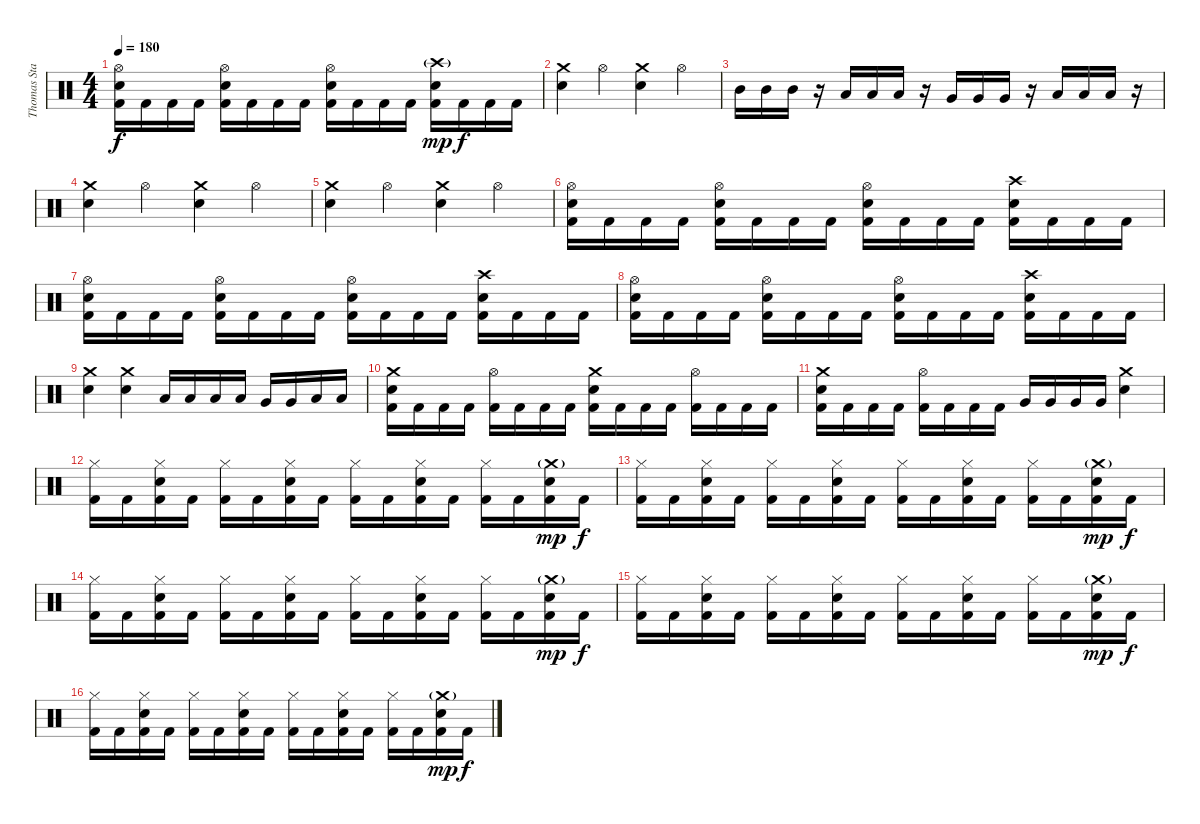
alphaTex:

\track ("Thomas Stauch" "Thomas Sta") {instrument percussion}
\staff {score}
\articulation defaults
\ts (4 4)
\tempo 180
\clef neutral
\ks c
("Hi-Hat (open)" "Electric Snare (hit)" "Kick (hit) 2").16{dy f} "Kick (hit) 2".16 "Kick (hit) 2".16 "Kick (hit) 2".16 ("Hi-Hat (open)" "Electric Snare (hit)" "Kick (hit) 2").16 "Kick (hit) 2".16 "Kick (hit) 2".16 "Kick (hit) 2".16 ("Hi-Hat (open)" "Electric Snare (hit)" "Kick (hit) 2").16 "Kick (hit) 2".16 "Kick (hit) 2".16 "Kick (hit) 2".16 ("Crash high (hit)"{g} "Electric Snare (hit)" "Kick (hit) 2").16{dy mp} "Kick (hit) 2".16{dy f} "Kick (hit) 2".16 "Kick (hit) 2".16 |
("Crash medium (hit)" "Electric Snare (hit)").4 "Hi-Hat (open)".4 ("Crash medium (hit)" "Electric Snare (hit)").4 "Hi-Hat (open)".4 |
"Mid Tom (hit)".16 "Mid Tom (hit)".16 "Mid Tom (hit)".16 r.16 "Low Tom (hit)".16 "Low Tom (hit)".16 "Low Tom (hit)".16 r.16 "Very Low Tom (hit)".16 "Very Low Tom (hit)".16 "Very Low Tom (hit)".16 r.16 "Low Floor Tom (hit)".16 "Low Floor Tom (hit)".16 "Low Floor Tom (hit)".16 r.16 |
("Crash medium (hit)" "Electric Snare (hit)").4 "Hi-Hat (open)".4 ("Crash medium (hit)" "Electric Snare (hit)").4 "Hi-Hat (open)".4 |
("Crash medium (hit)" "Electric Snare (hit)").4 "Hi-Hat (open)".4 ("Crash medium (hit)" "Electric Snare (hit)").4 "Hi-Hat (open)".4 |
("Hi-Hat (open)" "Electric Snare (hit)" "Kick (hit) 2").16 "Kick (hit) 2".16 "Kick (hit) 2".16 "Kick (hit) 2".16 ("Hi-Hat (open)" "Electric Snare (hit)" "Kick (hit) 2").16 "Kick (hit) 2".16 "Kick (hit) 2".16 "Kick (hit) 2".16 ("Hi-Hat (open)" "Electric Snare (hit)" "Kick (hit) 2").16 "Kick (hit) 2".16 "Kick (hit) 2".16 "Kick (hit) 2".16 ("Crash high (hit)" "Electric Snare (hit)" "Kick (hit) 2").16 "Kick (hit) 2".16 "Kick (hit) 2".16 "Kick (hit) 2".16 |
("Hi-Hat (open)" "Electric Snare (hit)" "Kick (hit) 2").16 "Kick (hit) 2".16 "Kick (hit) 2".16 "Kick (hit) 2".16 ("Hi-Hat (open)" "Electric Snare (hit)" "Kick (hit) 2").16 "Kick (hit) 2".16 "Kick (hit) 2".16 "Kick (hit) 2".16 ("Hi-Hat (open)" "Electric Snare (hit)" "Kick (hit) 2").16 "Kick (hit) 2".16 "Kick (hit) 2".16 "Kick (hit) 2".16 ("Crash high (hit)" "Electric Snare (hit)" "Kick (hit) 2").16 "Kick (hit) 2".16 "Kick (hit) 2".16 "Kick (hit) 2".16 |
("Hi-Hat (open)" "Electric Snare (hit)" "Kick (hit) 2").16 "Kick (hit) 2".16 "Kick (hit) 2".16 "Kick (hit) 2".16 ("Hi-Hat (open)" "Electric Snare (hit)" "Kick (hit) 2").16 "Kick (hit) 2".16 "Kick (hit) 2".16 "Kick (hit) 2".16 ("Hi-Hat (open)" "Electric Snare (hit)" "Kick (hit) 2").16 "Kick (hit) 2".16 "Kick (hit) 2".16 "Kick (hit) 2".16 ("Crash high (hit)" "Electric Snare (hit)" "Kick (hit) 2").16 "Kick (hit) 2".16 "Kick (hit) 2".16 "Kick (hit) 2".16 |
("Crash medium (hit)" "Electric Snare (hit)").4 ("Crash medium (hit)" "Electric Snare (hit)").4 "Low Tom (hit)".16 "Low Tom (hit)".16 "Low Tom (hit)".16 "Low Tom (hit)".16 "Very Low Tom (hit)".16 "Very Low Tom (hit)".16 "Low Floor Tom (hit)".16 "Low Floor Tom (hit)".16 |
("Crash medium (hit)" "Electric Snare (hit)" "Kick (hit) 2").16 "Kick (hit) 2".16 "Kick (hit) 2".16 "Kick (hit) 2".16 ("Hi-Hat (open)" "Kick (hit) 2").16 "Kick (hit) 2".16 "Kick (hit) 2".16 "Kick (hit) 2".16 ("Crash medium (hit)" "Electric Snare (hit)" "Kick (hit) 2").16 "Kick (hit) 2".16 "Kick (hit) 2".16 "Kick (hit) 2".16 ("Hi-Hat (open)" "Kick (hit) 2").16 "Kick (hit) 2".16 "Kick (hit) 2".16 "Kick (hit) 2".16 |
("Crash medium (hit)" "Electric Snare (hit)" "Kick (hit) 2").16 "Kick (hit) 2".16 "Kick (hit) 2".16 "Kick (hit) 2".16 ("Hi-Hat (open)" "Kick (hit) 2").16 "Kick (hit) 2".16 "Kick (hit) 2".16 "Kick (hit) 2".16 "Very Low Tom (hit)".16 "Very Low Tom (hit)".16 "Very Low Tom (hit)".16 "Very Low Tom (hit)".16 ("Crash medium (hit)" "Electric Snare (hit)").4 |
("Hi-Hat (closed)" "Kick (hit) 2").16 "Kick (hit) 2".16 ("Hi-Hat (closed)" "Electric Snare (hit)" "Kick (hit) 2").16 "Kick (hit) 2".16 ("Hi-Hat (closed)" "Kick (hit) 2").16 "Kick (hit) 2".16 ("Hi-Hat (closed)" "Electric Snare (hit)" "Kick (hit) 2").16 "Kick (hit) 2".16 ("Hi-Hat (closed)" "Kick (hit) 2").16 "Kick (hit) 2".16 ("Hi-Hat (closed)" "Electric Snare (hit)" "Kick (hit) 2").16 "Kick (hit) 2".16 ("Hi-Hat (closed)" "Kick (hit) 2").16 "Kick (hit) 2".16 ("Crash medium (hit)"{g} "Electric Snare (hit)" "Kick (hit) 2").16{dy mp} "Kick (hit) 2".16{dy f} |
("Hi-Hat (closed)" "Kick (hit) 2").16 "Kick (hit) 2".16 ("Hi-Hat (closed)" "Electric Snare (hit)" "Kick (hit) 2").16 "Kick (hit) 2".16 ("Hi-Hat (closed)" "Kick (hit) 2").16 "Kick (hit) 2".16 ("Hi-Hat (closed)" "Electric Snare (hit)" "Kick (hit) 2").16 "Kick (hit) 2".16 ("Hi-Hat (closed)" "Kick (hit) 2").16 "Kick (hit) 2".16 ("Hi-Hat (closed)" "Electric Snare (hit)" "Kick (hit) 2").16 "Kick (hit) 2".16 ("Hi-Hat (closed)" "Kick (hit) 2").16 "Kick (hit) 2".16 ("Crash medium (hit)"{g} "Electric Snare (hit)" "Kick (hit) 2").16{dy mp} "Kick (hit) 2".16{dy f} |
("Hi-Hat (closed)" "Kick (hit) 2").16 "Kick (hit) 2".16 ("Hi-Hat (closed)" "Electric Snare (hit)" "Kick (hit) 2").16 "Kick (hit) 2".16 ("Hi-Hat (closed)" "Kick (hit) 2").16 "Kick (hit) 2".16 ("Hi-Hat (closed)" "Electric Snare (hit)" "Kick (hit) 2").16 "Kick (hit) 2".16 ("Hi-Hat (closed)" "Kick (hit) 2").16 "Kick (hit) 2".16 ("Hi-Hat (closed)" "Electric Snare (hit)" "Kick (hit) 2").16 "Kick (hit) 2".16 ("Hi-Hat (closed)" "Kick (hit) 2").16 "Kick (hit) 2".16 ("Crash medium (hit)"{g} "Electric Snare (hit)" "Kick (hit) 2").16{dy mp} "Kick (hit) 2".16{dy f} |
("Hi-Hat (closed)" "Kick (hit) 2").16 "Kick (hit) 2".16 ("Hi-Hat (closed)" "Electric Snare (hit)" "Kick (hit) 2").16 "Kick (hit) 2".16 ("Hi-Hat (closed)" "Kick (hit) 2").16 "Kick (hit) 2".16 ("Hi-Hat (closed)" "Electric Snare (hit)" "Kick (hit) 2").16 "Kick (hit) 2".16 ("Hi-Hat (closed)" "Kick (hit) 2").16 "Kick (hit) 2".16 ("Hi-Hat (closed)" "Electric Snare (hit)" "Kick (hit) 2").16 "Kick (hit) 2".16 ("Hi-Hat (closed)" "Kick (hit) 2").16 "Kick (hit) 2".16 ("Crash medium (hit)"{g} "Electric Snare (hit)" "Kick (hit) 2").16{dy mp} "Kick (hit) 2".16{dy f} |
("Hi-Hat (closed)" "Kick (hit) 2").16 "Kick (hit) 2".16 ("Hi-Hat (closed)" "Electric Snare (hit)" "Kick (hit) 2").16 "Kick (hit) 2".16 ("Hi-Hat (closed)" "Kick (hit) 2").16 "Kick (hit) 2".16 ("Hi-Hat (closed)" "Electric Snare (hit)" "Kick (hit) 2").16 "Kick (hit) 2".16 ("Hi-Hat (closed)" "Kick (hit) 2").16 "Kick (hit) 2".16 ("Hi-Hat (closed)" "Electric Snare (hit)" "Kick (hit) 2").16 "Kick (hit) 2".16 ("Hi-Hat (closed)" "Kick (hit) 2").16 "Kick (hit) 2".16 ("Crash medium (hit)"{g} "Electric Snare (hit)" "Kick (hit) 2").16{dy mp} "Kick (hit) 2".16{dy f}
